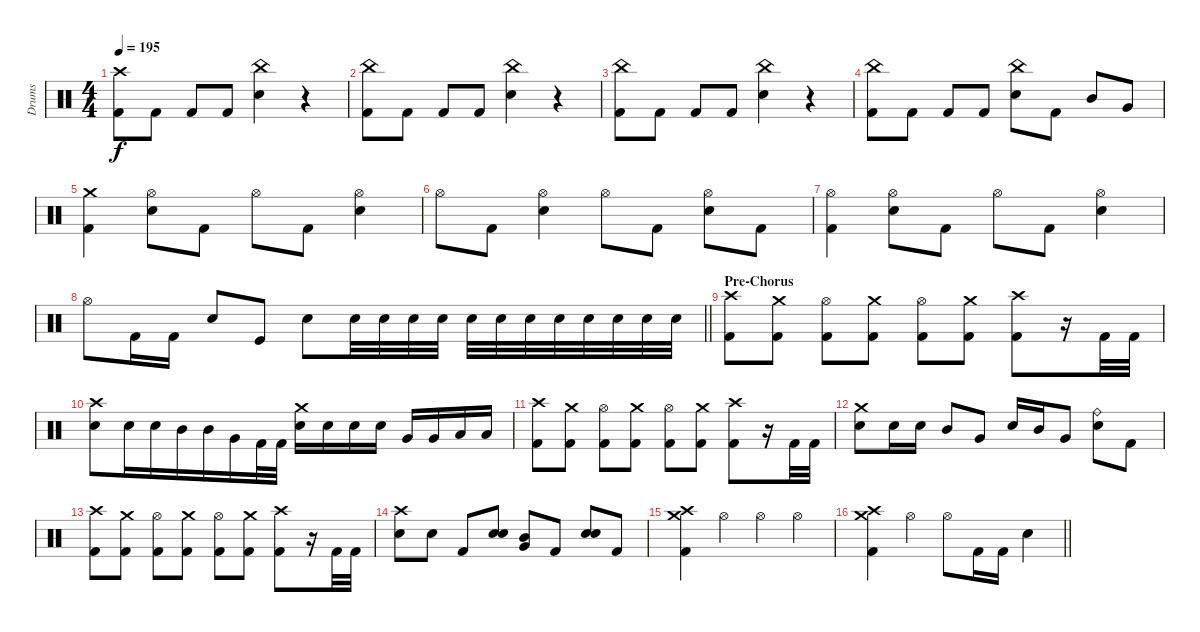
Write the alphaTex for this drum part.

\track ("Drums" "Drums") {instrument percussion}
\staff {score}
\articulation defaults
\ts (4 4)
\tempo 195
\clef neutral
\ks c
("Crash high (hit)" "Kick (hit) 2").8{dy f} "Kick (hit) 2".8 "Kick (hit) 2".8 "Kick (hit) 2".8 ("China (hit)" "Snare (hit) 2").4 r.4 |
("China (hit)" "Kick (hit) 2").8 "Kick (hit) 2".8 "Kick (hit) 2".8 "Kick (hit) 2".8 ("China (hit)" "Snare (hit) 2").4 r.4 |
("China (hit)" "Kick (hit) 2").8 "Kick (hit) 2".8 "Kick (hit) 2".8 "Kick (hit) 2".8 ("China (hit)" "Snare (hit) 2").4 r.4 |
("China (hit)" "Kick (hit) 2").8 "Kick (hit) 2".8 "Kick (hit) 2".8 "Kick (hit) 2".8 ("China (hit)" "Snare (hit) 2").8 "Kick (hit) 2".8 "Mid Tom (hit)".8 "Very Low Tom (hit)".8 |
("Crash medium (hit)" "Kick (hit) 2").4 ("Hi-Hat (open)" "Snare (hit) 2").8 "Kick (hit) 2".8 "Hi-Hat (open)".8 "Kick (hit) 2".8 ("Hi-Hat (open)" "Snare (hit) 2").4 |
"Hi-Hat (open)".8 "Kick (hit) 2".8 ("Hi-Hat (open)" "Snare (hit) 2").4 "Hi-Hat (open)".8 "Kick (hit) 2".8 ("Hi-Hat (open)" "Snare (hit) 2").8 "Kick (hit) 2".8 |
("Hi-Hat (open)" "Kick (hit) 2").4 ("Hi-Hat (open)" "Snare (hit) 2").8 "Kick (hit) 2".8 "Hi-Hat (open)".8 "Kick (hit) 2".8 ("Hi-Hat (open)" "Snare (hit) 2").4 |
\barLineRight lightlight "Hi-Hat (open)".8 "Kick (hit) 2".16 "Kick (hit) 2".16 "Snare (hit) 2".8 "Kick (hit)".8 "Snare (hit) 2".8 "Snare (hit) 2".32 "Snare (hit) 2".32 "Snare (hit) 2".32 "Snare (hit) 2".32 "Snare (hit) 2".32 "Snare (hit) 2".32 "Snare (hit) 2".32 "Snare (hit) 2".32 "Snare (hit) 2".32 "Snare (hit) 2".32 "Snare (hit) 2".32 "Snare (hit) 2".32
|
\section ("" "Pre-Chorus")
("Crash high (hit)" "Kick (hit) 2").8 ("Crash medium (hit)" "Kick (hit) 2").8 ("Hi-Hat (open)" "Kick (hit) 2").8 ("Crash medium (hit)" "Kick (hit) 2").8 ("Hi-Hat (open)" "Kick (hit) 2").8 ("Crash medium (hit)" "Kick (hit) 2").8 ("Crash high (hit)" "Kick (hit) 2").8 r.16 "Kick (hit) 2".32 "Kick (hit) 2".32 |
("Crash high (hit)" "Snare (hit) 2").8 "Snare (hit) 2".16 "Snare (hit) 2".16{beam merge} "Mid Tom (hit)".16 "Mid Tom (hit)".16 "Very Low Tom (hit)".16 "Kick (hit) 2".32 "Kick (hit) 2".32 ("Crash medium (hit)" "Snare (hit) 2").16 "Snare (hit) 2".16 "Snare (hit) 2".16 "Snare (hit) 2".16 "Very Low Tom (hit)".16 "Very Low Tom (hit)".16 "Low Floor Tom (hit)".16 "Low Floor Tom (hit)".16 |
("Crash high (hit)" "Kick (hit) 2").8 ("Crash medium (hit)" "Kick (hit) 2").8 ("Hi-Hat (open)" "Kick (hit) 2").8 ("Crash medium (hit)" "Kick (hit) 2").8 ("Hi-Hat (open)" "Kick (hit) 2").8 ("Crash medium (hit)" "Kick (hit) 2").8 ("Crash high (hit)" "Kick (hit) 2").8 r.16 "Kick (hit) 2".32 "Kick (hit) 2".32 |
("Crash medium (hit)" "Snare (hit) 2").8 "Snare (hit) 2".16 "Snare (hit) 2".16 "Mid Tom (hit)".8 "Very Low Tom (hit)".8 "Snare (hit) 2".16 "Mid Tom (hit)".16 "Very Low Tom (hit)".8 ("Ride (bell)" "Snare (hit) 2").8 "Kick (hit) 2".8 |
("Crash high (hit)" "Kick (hit) 2").8 ("Crash medium (hit)" "Kick (hit) 2").8 ("Hi-Hat (open)" "Kick (hit) 2").8 ("Crash medium (hit)" "Kick (hit) 2").8 ("Hi-Hat (open)" "Kick (hit) 2").8 ("Crash medium (hit)" "Kick (hit) 2").8 ("Crash high (hit)" "Kick (hit) 2").8 r.16 "Kick (hit) 2".32 "Kick (hit) 2".32 |
("Crash high (hit)" "Snare (hit) 2").8 "Snare (hit) 2".8 "Kick (hit) 2".8 ("Snare (hit) 2" "Snare (hit) 2").8 ("Mid Tom (hit)" "Very Low Tom (hit)").8 "Kick (hit) 2".8 ("Snare (hit) 2" "Snare (hit) 2").8 "Kick (hit) 2".8 |
("Crash medium (hit)" "Crash high (hit)" "Kick (hit) 2").4 "Hi-Hat (open)".4 "Hi-Hat (open)".4 "Hi-Hat (open)".4 |
\barLineRight lightlight
("Crash medium (hit)" "Crash high (hit)" "Kick (hit) 2").4 "Hi-Hat (open)".4 "Hi-Hat (open)".8 "Kick (hit) 2".16 "Kick (hit) 2".16 "Snare (hit) 2".4
